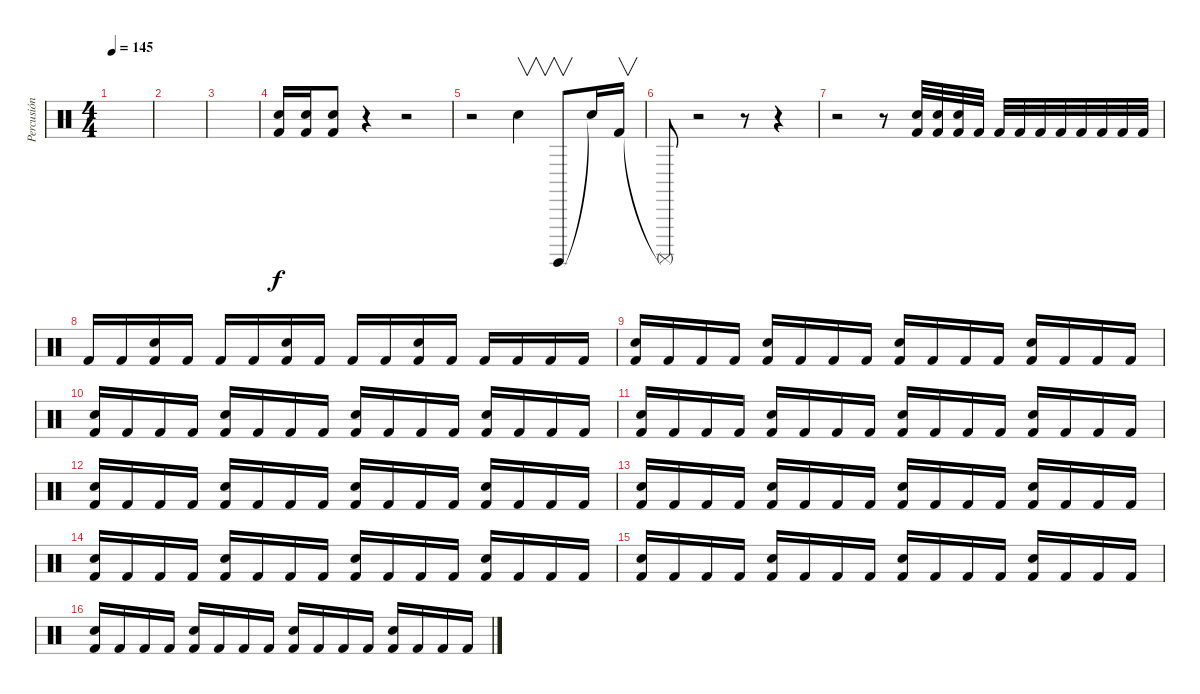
\track ("Percusión" "Percusión") {instrument percussion}
\staff {score}
\articulation defaults
\ts (4 4)
\tempo 145
\clef neutral
\ks c
|
|
|
("Snare (hit) 2" "Kick (hit) 2").16 ("Snare (hit) 2" "Kick (hit) 2").16 ("Snare (hit) 2" "Kick (hit) 2").8 r.4 r.2 |
r.2 "Snare (hit) 2".4{v} "Surdo (hit)".8{v} "Snare (hit)"{t}.16 "Kick (hit) 2".16{v} |
"Surdo (mute)"{t}.8 r.2 r.8 r.4 |
r.2 r.8 ("Snare (hit) 2" "Kick (hit) 2").32 ("Snare (hit) 2" "Kick (hit) 2").32 ("Snare (hit) 2" "Kick (hit) 2").32 "Kick (hit) 2".32 "Kick (hit) 2".32 "Kick (hit) 2".32 "Kick (hit) 2".32 "Kick (hit) 2".32 "Kick (hit) 2".32 "Kick (hit) 2".32 "Kick (hit) 2".32 "Kick (hit) 2".32 |
"Kick (hit) 2".16 "Kick (hit) 2".16 ("Snare (hit) 2" "Kick (hit) 2").16 "Kick (hit) 2".16 "Kick (hit) 2".16 "Kick (hit) 2".16 ("Snare (hit) 2" "Kick (hit) 2").16 "Kick (hit) 2".16 "Kick (hit) 2".16 "Kick (hit) 2".16 ("Snare (hit) 2" "Kick (hit) 2").16 "Kick (hit) 2".16 "Kick (hit) 2".16 "Kick (hit) 2".16 "Kick (hit) 2".16 "Kick (hit) 2".16 |
("Snare (hit) 2" "Kick (hit) 2").16 "Kick (hit) 2".16 "Kick (hit) 2".16 "Kick (hit) 2".16 ("Snare (hit) 2" "Kick (hit) 2").16 "Kick (hit) 2".16 "Kick (hit) 2".16 "Kick (hit) 2".16 ("Snare (hit) 2" "Kick (hit) 2").16 "Kick (hit) 2".16 "Kick (hit) 2".16 "Kick (hit) 2".16 ("Snare (hit) 2" "Kick (hit) 2").16 "Kick (hit) 2".16 "Kick (hit) 2".16 "Kick (hit) 2".16 |
("Snare (hit) 2" "Kick (hit) 2").16 "Kick (hit) 2".16 "Kick (hit) 2".16 "Kick (hit) 2".16 ("Snare (hit) 2" "Kick (hit) 2").16 "Kick (hit) 2".16 "Kick (hit) 2".16 "Kick (hit) 2".16 ("Snare (hit) 2" "Kick (hit) 2").16 "Kick (hit) 2".16 "Kick (hit) 2".16 "Kick (hit) 2".16 ("Snare (hit) 2" "Kick (hit) 2").16 "Kick (hit) 2".16 "Kick (hit) 2".16 "Kick (hit) 2".16 |
("Snare (hit) 2" "Kick (hit) 2").16 "Kick (hit) 2".16 "Kick (hit) 2".16 "Kick (hit) 2".16 ("Snare (hit) 2" "Kick (hit) 2").16 "Kick (hit) 2".16 "Kick (hit) 2".16 "Kick (hit) 2".16 ("Snare (hit) 2" "Kick (hit) 2").16 "Kick (hit) 2".16 "Kick (hit) 2".16 "Kick (hit) 2".16 ("Snare (hit) 2" "Kick (hit) 2").16 "Kick (hit) 2".16 "Kick (hit) 2".16 "Kick (hit) 2".16 |
("Snare (hit) 2" "Kick (hit) 2").16 "Kick (hit) 2".16 "Kick (hit) 2".16 "Kick (hit) 2".16 ("Snare (hit) 2" "Kick (hit) 2").16 "Kick (hit) 2".16 "Kick (hit) 2".16 "Kick (hit) 2".16 ("Snare (hit) 2" "Kick (hit) 2").16 "Kick (hit) 2".16 "Kick (hit) 2".16 "Kick (hit) 2".16 ("Snare (hit) 2" "Kick (hit) 2").16 "Kick (hit) 2".16 "Kick (hit) 2".16 "Kick (hit) 2".16 |
("Snare (hit) 2" "Kick (hit) 2").16 "Kick (hit) 2".16 "Kick (hit) 2".16 "Kick (hit) 2".16 ("Snare (hit) 2" "Kick (hit) 2").16 "Kick (hit) 2".16 "Kick (hit) 2".16 "Kick (hit) 2".16 ("Snare (hit) 2" "Kick (hit) 2").16 "Kick (hit) 2".16 "Kick (hit) 2".16 "Kick (hit) 2".16 ("Snare (hit) 2" "Kick (hit) 2").16 "Kick (hit) 2".16 "Kick (hit) 2".16 "Kick (hit) 2".16 |
("Snare (hit) 2" "Kick (hit) 2").16 "Kick (hit) 2".16 "Kick (hit) 2".16 "Kick (hit) 2".16 ("Snare (hit) 2" "Kick (hit) 2").16 "Kick (hit) 2".16 "Kick (hit) 2".16 "Kick (hit) 2".16 ("Snare (hit) 2" "Kick (hit) 2").16 "Kick (hit) 2".16 "Kick (hit) 2".16 "Kick (hit) 2".16 ("Snare (hit) 2" "Kick (hit) 2").16 "Kick (hit) 2".16 "Kick (hit) 2".16 "Kick (hit) 2".16 |
("Snare (hit) 2" "Kick (hit) 2").16 "Kick (hit) 2".16 "Kick (hit) 2".16 "Kick (hit) 2".16 ("Snare (hit) 2" "Kick (hit) 2").16 "Kick (hit) 2".16 "Kick (hit) 2".16 "Kick (hit) 2".16 ("Snare (hit) 2" "Kick (hit) 2").16 "Kick (hit) 2".16 "Kick (hit) 2".16 "Kick (hit) 2".16 ("Snare (hit) 2" "Kick (hit) 2").16 "Kick (hit) 2".16 "Kick (hit) 2".16 "Kick (hit) 2".16 |
("Snare (hit) 2" "Kick (hit) 2").16 "Kick (hit) 2".16 "Kick (hit) 2".16 "Kick (hit) 2".16 ("Snare (hit) 2" "Kick (hit) 2").16 "Kick (hit) 2".16 "Kick (hit) 2".16 "Kick (hit) 2".16 ("Snare (hit) 2" "Kick (hit) 2").16 "Kick (hit) 2".16 "Kick (hit) 2".16 "Kick (hit) 2".16 ("Snare (hit) 2" "Kick (hit) 2").16 "Kick (hit) 2".16 "Kick (hit) 2".16 "Kick (hit) 2".16
